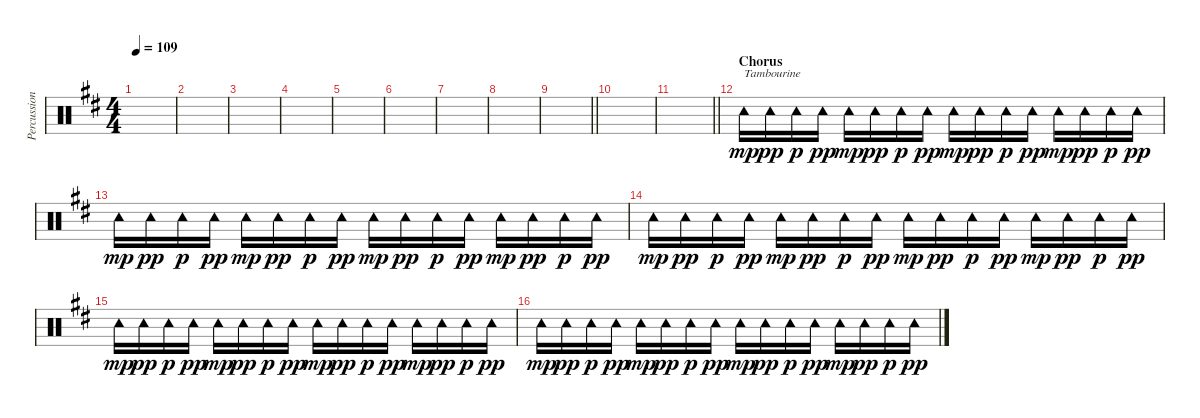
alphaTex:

\track ("Percussion (Rick McMurray)" "Percussion") {instrument percussion}
\staff {score}
\articulation defaults
\ts (4 4)
\tempo 109
\clef neutral
\ks d
|
|
|
|
|
|
|
|
\barLineRight lightlight
|
|
\barLineRight lightlight
|
\section ("" "Chorus")
"Tambourine (hit)".16{txt "Tambourine" dy mp} "Tambourine (hit)".16{dy pp} "Tambourine (hit)".16{dy p} "Tambourine (hit)".16{dy pp} "Tambourine (hit)".16{dy mp} "Tambourine (hit)".16{dy pp} "Tambourine (hit)".16{dy p} "Tambourine (hit)".16{dy pp} "Tambourine (hit)".16{dy mp} "Tambourine (hit)".16{dy pp} "Tambourine (hit)".16{dy p} "Tambourine (hit)".16{dy pp} "Tambourine (hit)".16{dy mp} "Tambourine (hit)".16{dy pp} "Tambourine (hit)".16{dy p} "Tambourine (hit)".16{dy pp} |
"Tambourine (hit)".16{dy mp} "Tambourine (hit)".16{dy pp} "Tambourine (hit)".16{dy p} "Tambourine (hit)".16{dy pp} "Tambourine (hit)".16{dy mp} "Tambourine (hit)".16{dy pp} "Tambourine (hit)".16{dy p} "Tambourine (hit)".16{dy pp} "Tambourine (hit)".16{dy mp} "Tambourine (hit)".16{dy pp} "Tambourine (hit)".16{dy p} "Tambourine (hit)".16{dy pp} "Tambourine (hit)".16{dy mp} "Tambourine (hit)".16{dy pp} "Tambourine (hit)".16{dy p} "Tambourine (hit)".16{dy pp} |
"Tambourine (hit)".16{dy mp} "Tambourine (hit)".16{dy pp} "Tambourine (hit)".16{dy p} "Tambourine (hit)".16{dy pp} "Tambourine (hit)".16{dy mp} "Tambourine (hit)".16{dy pp} "Tambourine (hit)".16{dy p} "Tambourine (hit)".16{dy pp} "Tambourine (hit)".16{dy mp} "Tambourine (hit)".16{dy pp} "Tambourine (hit)".16{dy p} "Tambourine (hit)".16{dy pp} "Tambourine (hit)".16{dy mp} "Tambourine (hit)".16{dy pp} "Tambourine (hit)".16{dy p} "Tambourine (hit)".16{dy pp} |
"Tambourine (hit)".16{dy mp} "Tambourine (hit)".16{dy pp} "Tambourine (hit)".16{dy p} "Tambourine (hit)".16{dy pp} "Tambourine (hit)".16{dy mp} "Tambourine (hit)".16{dy pp} "Tambourine (hit)".16{dy p} "Tambourine (hit)".16{dy pp} "Tambourine (hit)".16{dy mp} "Tambourine (hit)".16{dy pp} "Tambourine (hit)".16{dy p} "Tambourine (hit)".16{dy pp} "Tambourine (hit)".16{dy mp} "Tambourine (hit)".16{dy pp} "Tambourine (hit)".16{dy p} "Tambourine (hit)".16{dy pp} |
"Tambourine (hit)".16{dy mp} "Tambourine (hit)".16{dy pp} "Tambourine (hit)".16{dy p} "Tambourine (hit)".16{dy pp} "Tambourine (hit)".16{dy mp} "Tambourine (hit)".16{dy pp} "Tambourine (hit)".16{dy p} "Tambourine (hit)".16{dy pp} "Tambourine (hit)".16{dy mp} "Tambourine (hit)".16{dy pp} "Tambourine (hit)".16{dy p} "Tambourine (hit)".16{dy pp} "Tambourine (hit)".16{dy mp} "Tambourine (hit)".16{dy pp} "Tambourine (hit)".16{dy p} "Tambourine (hit)".16{dy pp}
